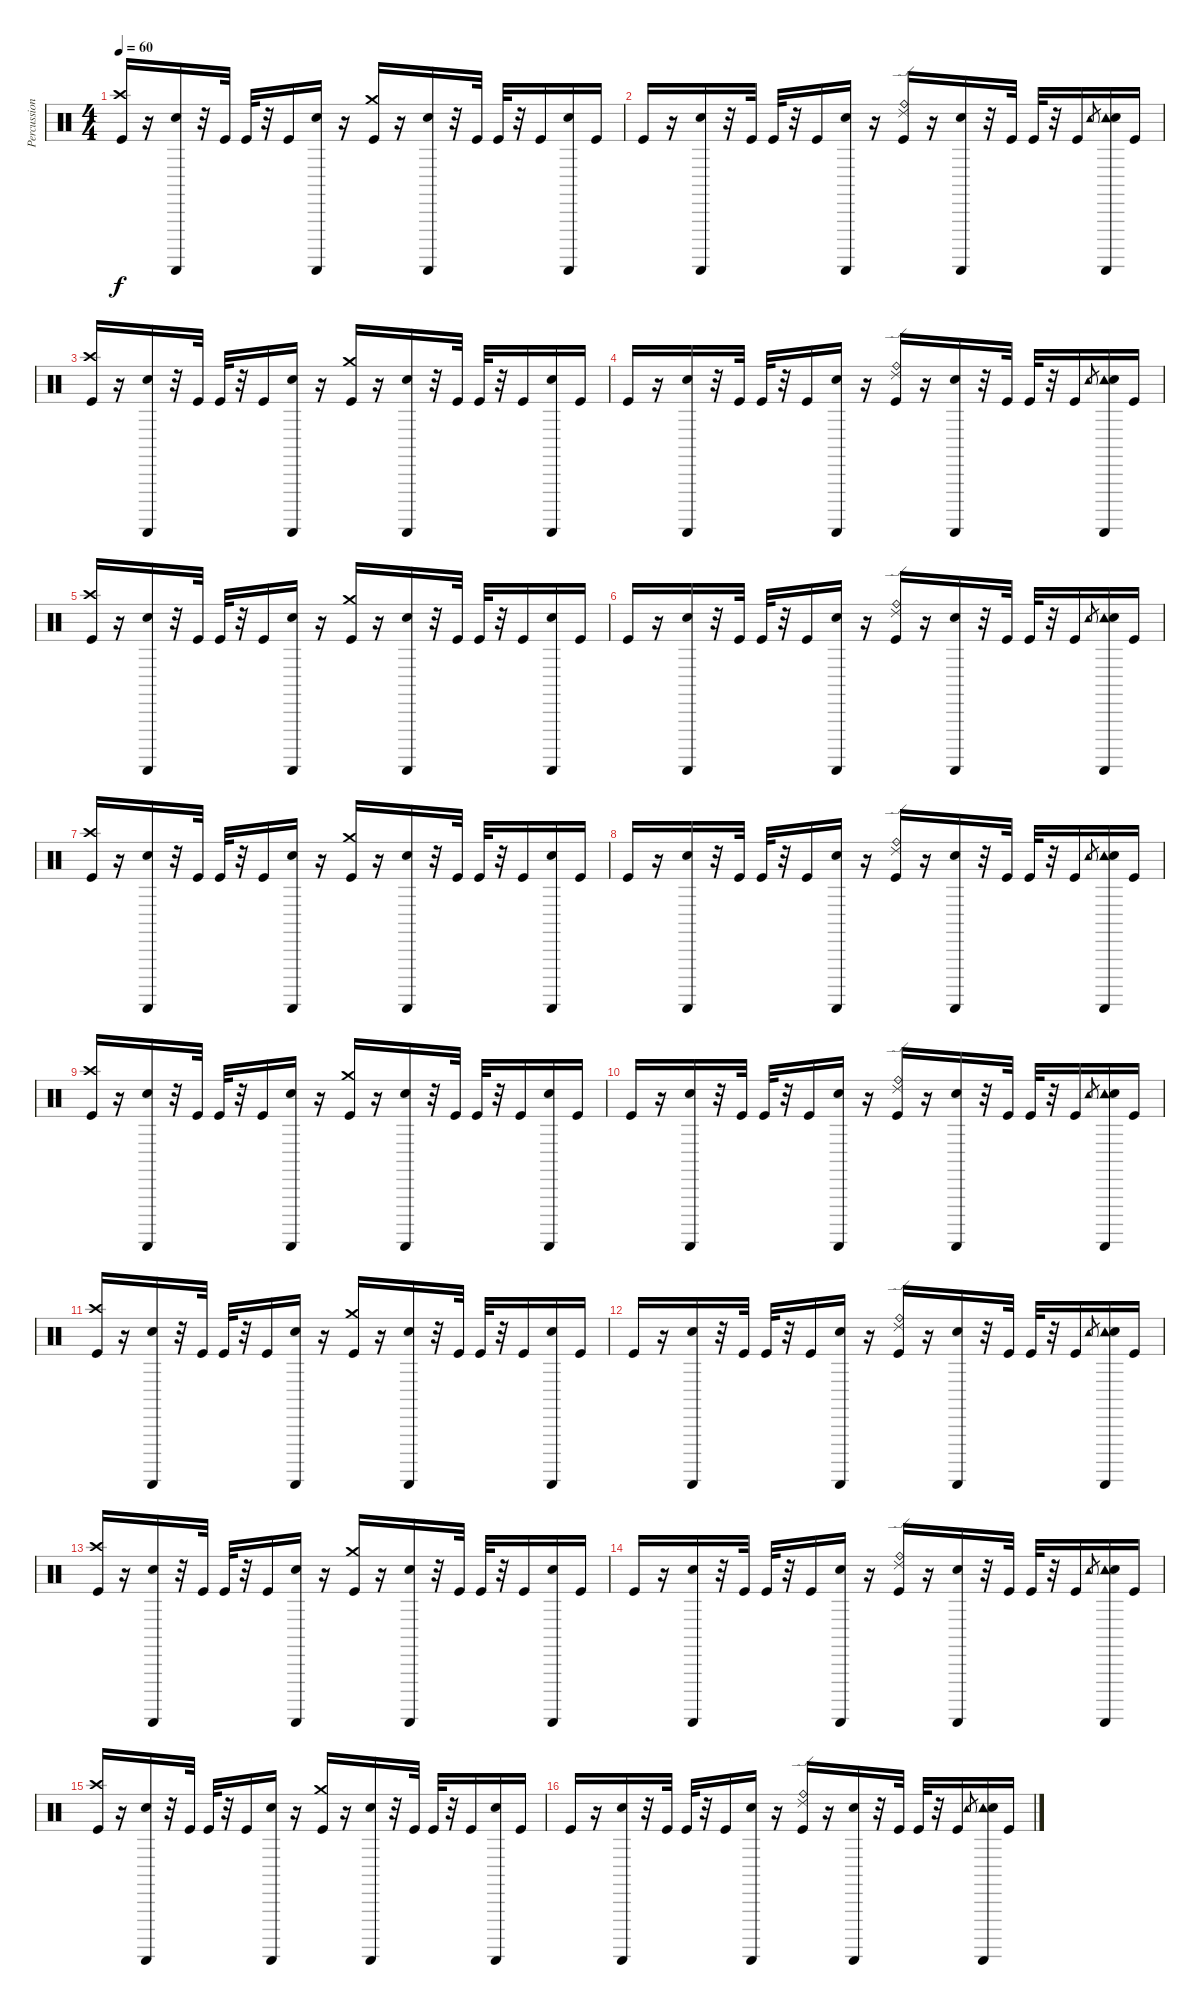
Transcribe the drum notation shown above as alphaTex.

\track ("Percussions" "Percussion") {instrument percussion}
\staff {score}
\articulation defaults
\ts (4 4)
\tempo 60
\clef neutral
\ks c
("Crash high (hit)" "Kick (hit)").16{dy f} r.16 ("Guiro (scrap-return)" "Electric Snare (hit)").16 r.32 "Kick (hit)".32 "Kick (hit)".32 r.32 "Kick (hit)".16 ("Guiro (scrap-return)" "Electric Snare (hit)").16 r.16 ("Crash medium (hit)" "Kick (hit)").16 r.16 ("Guiro (scrap-return)" "Electric Snare (hit)").16 r.32 "Kick (hit)".32 "Kick (hit)".32 r.32 "Kick (hit)".16 ("Guiro (scrap-return)" "Electric Snare (hit)").16 "Kick (hit)".16 |
"Kick (hit)".16 r.16 ("Guiro (scrap-return)" "Electric Snare (hit)").16 r.32 "Kick (hit)".32 "Kick (hit)".32 r.32 "Kick (hit)".16 ("Guiro (scrap-return)" "Electric Snare (hit)").16 r.16 ("Ride (bell)" "Ride (edge) 2" "Kick (hit)").16 r.16 ("Guiro (scrap-return)" "Electric Snare (hit)").16 r.32 "Kick (hit)".32 "Kick (hit)".32 r.32 "Kick (hit)".16 "Tambourine (hit)".8{gr} ("Tambourine (hit)" "Guiro (scrap-return)" "Electric Snare (hit)").16 "Kick (hit)".16 |
("Crash high (hit)" "Kick (hit)").16 r.16 ("Guiro (scrap-return)" "Electric Snare (hit)").16 r.32 "Kick (hit)".32 "Kick (hit)".32 r.32 "Kick (hit)".16 ("Guiro (scrap-return)" "Electric Snare (hit)").16 r.16 ("Crash medium (hit)" "Kick (hit)").16 r.16 ("Guiro (scrap-return)" "Electric Snare (hit)").16 r.32 "Kick (hit)".32 "Kick (hit)".32 r.32 "Kick (hit)".16 ("Guiro (scrap-return)" "Electric Snare (hit)").16 "Kick (hit)".16 |
"Kick (hit)".16 r.16 ("Guiro (scrap-return)" "Electric Snare (hit)").16 r.32 "Kick (hit)".32 "Kick (hit)".32 r.32 "Kick (hit)".16 ("Guiro (scrap-return)" "Electric Snare (hit)").16 r.16 ("Ride (bell)" "Ride (edge) 2" "Kick (hit)").16 r.16 ("Guiro (scrap-return)" "Electric Snare (hit)").16 r.32 "Kick (hit)".32 "Kick (hit)".32 r.32 "Kick (hit)".16 "Tambourine (hit)".8{gr} ("Tambourine (hit)" "Guiro (scrap-return)" "Electric Snare (hit)").16 "Kick (hit)".16 |
("Crash high (hit)" "Kick (hit)").16 r.16 ("Guiro (scrap-return)" "Electric Snare (hit)").16 r.32 "Kick (hit)".32 "Kick (hit)".32 r.32 "Kick (hit)".16 ("Guiro (scrap-return)" "Electric Snare (hit)").16 r.16 ("Crash medium (hit)" "Kick (hit)").16 r.16 ("Guiro (scrap-return)" "Electric Snare (hit)").16 r.32 "Kick (hit)".32 "Kick (hit)".32 r.32 "Kick (hit)".16 ("Guiro (scrap-return)" "Electric Snare (hit)").16 "Kick (hit)".16 |
"Kick (hit)".16 r.16 ("Guiro (scrap-return)" "Electric Snare (hit)").16 r.32 "Kick (hit)".32 "Kick (hit)".32 r.32 "Kick (hit)".16 ("Guiro (scrap-return)" "Electric Snare (hit)").16 r.16 ("Ride (bell)" "Ride (edge) 2" "Kick (hit)").16 r.16 ("Guiro (scrap-return)" "Electric Snare (hit)").16 r.32 "Kick (hit)".32 "Kick (hit)".32 r.32 "Kick (hit)".16 "Tambourine (hit)".8{gr} ("Tambourine (hit)" "Guiro (scrap-return)" "Electric Snare (hit)").16 "Kick (hit)".16 |
("Crash high (hit)" "Kick (hit)").16 r.16 ("Guiro (scrap-return)" "Electric Snare (hit)").16 r.32 "Kick (hit)".32 "Kick (hit)".32 r.32 "Kick (hit)".16 ("Guiro (scrap-return)" "Electric Snare (hit)").16 r.16 ("Crash medium (hit)" "Kick (hit)").16 r.16 ("Guiro (scrap-return)" "Electric Snare (hit)").16 r.32 "Kick (hit)".32 "Kick (hit)".32 r.32 "Kick (hit)".16 ("Guiro (scrap-return)" "Electric Snare (hit)").16 "Kick (hit)".16 |
"Kick (hit)".16 r.16 ("Guiro (scrap-return)" "Electric Snare (hit)").16 r.32 "Kick (hit)".32 "Kick (hit)".32 r.32 "Kick (hit)".16 ("Guiro (scrap-return)" "Electric Snare (hit)").16 r.16 ("Ride (bell)" "Ride (edge) 2" "Kick (hit)").16 r.16 ("Guiro (scrap-return)" "Electric Snare (hit)").16 r.32 "Kick (hit)".32 "Kick (hit)".32 r.32 "Kick (hit)".16 "Tambourine (hit)".8{gr} ("Tambourine (hit)" "Guiro (scrap-return)" "Electric Snare (hit)").16 "Kick (hit)".16 |
("Crash high (hit)" "Kick (hit)").16 r.16 ("Guiro (scrap-return)" "Electric Snare (hit)").16 r.32 "Kick (hit)".32 "Kick (hit)".32 r.32 "Kick (hit)".16 ("Guiro (scrap-return)" "Electric Snare (hit)").16 r.16 ("Crash medium (hit)" "Kick (hit)").16 r.16 ("Guiro (scrap-return)" "Electric Snare (hit)").16 r.32 "Kick (hit)".32 "Kick (hit)".32 r.32 "Kick (hit)".16 ("Guiro (scrap-return)" "Electric Snare (hit)").16 "Kick (hit)".16 |
"Kick (hit)".16 r.16 ("Guiro (scrap-return)" "Electric Snare (hit)").16 r.32 "Kick (hit)".32 "Kick (hit)".32 r.32 "Kick (hit)".16 ("Guiro (scrap-return)" "Electric Snare (hit)").16 r.16 ("Ride (bell)" "Ride (edge) 2" "Kick (hit)").16 r.16 ("Guiro (scrap-return)" "Electric Snare (hit)").16 r.32 "Kick (hit)".32 "Kick (hit)".32 r.32 "Kick (hit)".16 "Tambourine (hit)".8{gr} ("Tambourine (hit)" "Guiro (scrap-return)" "Electric Snare (hit)").16 "Kick (hit)".16 |
("Crash high (hit)" "Kick (hit)").16 r.16 ("Guiro (scrap-return)" "Electric Snare (hit)").16 r.32 "Kick (hit)".32 "Kick (hit)".32 r.32 "Kick (hit)".16 ("Guiro (scrap-return)" "Electric Snare (hit)").16 r.16 ("Crash medium (hit)" "Kick (hit)").16 r.16 ("Guiro (scrap-return)" "Electric Snare (hit)").16 r.32 "Kick (hit)".32 "Kick (hit)".32 r.32 "Kick (hit)".16 ("Guiro (scrap-return)" "Electric Snare (hit)").16 "Kick (hit)".16 |
"Kick (hit)".16 r.16 ("Guiro (scrap-return)" "Electric Snare (hit)").16 r.32 "Kick (hit)".32 "Kick (hit)".32 r.32 "Kick (hit)".16 ("Guiro (scrap-return)" "Electric Snare (hit)").16 r.16 ("Ride (bell)" "Ride (edge) 2" "Kick (hit)").16 r.16 ("Guiro (scrap-return)" "Electric Snare (hit)").16 r.32 "Kick (hit)".32 "Kick (hit)".32 r.32 "Kick (hit)".16 "Tambourine (hit)".8{gr} ("Tambourine (hit)" "Guiro (scrap-return)" "Electric Snare (hit)").16 "Kick (hit)".16 |
("Crash high (hit)" "Kick (hit)").16 r.16 ("Guiro (scrap-return)" "Electric Snare (hit)").16 r.32 "Kick (hit)".32 "Kick (hit)".32 r.32 "Kick (hit)".16 ("Guiro (scrap-return)" "Electric Snare (hit)").16 r.16 ("Crash medium (hit)" "Kick (hit)").16 r.16 ("Guiro (scrap-return)" "Electric Snare (hit)").16 r.32 "Kick (hit)".32 "Kick (hit)".32 r.32 "Kick (hit)".16 ("Guiro (scrap-return)" "Electric Snare (hit)").16 "Kick (hit)".16 |
"Kick (hit)".16 r.16 ("Guiro (scrap-return)" "Electric Snare (hit)").16 r.32 "Kick (hit)".32 "Kick (hit)".32 r.32 "Kick (hit)".16 ("Guiro (scrap-return)" "Electric Snare (hit)").16 r.16 ("Ride (bell)" "Ride (edge) 2" "Kick (hit)").16 r.16 ("Guiro (scrap-return)" "Electric Snare (hit)").16 r.32 "Kick (hit)".32 "Kick (hit)".32 r.32 "Kick (hit)".16 "Tambourine (hit)".8{gr} ("Tambourine (hit)" "Guiro (scrap-return)" "Electric Snare (hit)").16 "Kick (hit)".16 |
("Crash high (hit)" "Kick (hit)").16{volume 0} r.16 ("Guiro (scrap-return)" "Electric Snare (hit)").16 r.32 "Kick (hit)".32 "Kick (hit)".32 r.32 "Kick (hit)".16 ("Guiro (scrap-return)" "Electric Snare (hit)").16 r.16 ("Crash medium (hit)" "Kick (hit)").16 r.16 ("Guiro (scrap-return)" "Electric Snare (hit)").16 r.32 "Kick (hit)".32 "Kick (hit)".32 r.32 "Kick (hit)".16 ("Guiro (scrap-return)" "Electric Snare (hit)").16 "Kick (hit)".16 |
"Kick (hit)".16 r.16 ("Guiro (scrap-return)" "Electric Snare (hit)").16 r.32 "Kick (hit)".32 "Kick (hit)".32 r.32 "Kick (hit)".16 ("Guiro (scrap-return)" "Electric Snare (hit)").16 r.16 ("Ride (bell)" "Ride (edge) 2" "Kick (hit)").16 r.16 ("Guiro (scrap-return)" "Electric Snare (hit)").16 r.32 "Kick (hit)".32 "Kick (hit)".32 r.32 "Kick (hit)".16 "Tambourine (hit)".8{gr} ("Tambourine (hit)" "Guiro (scrap-return)" "Electric Snare (hit)").16 "Kick (hit)".16
